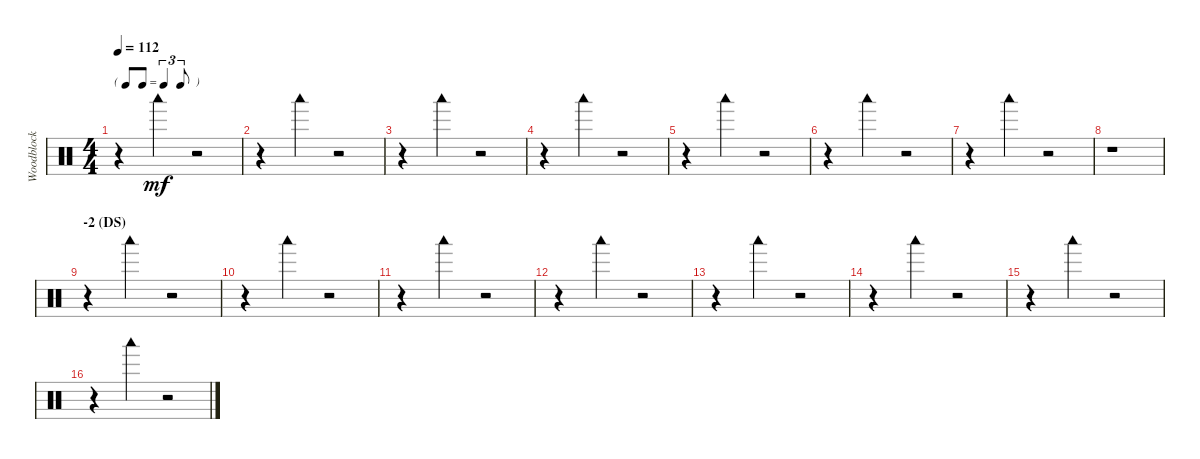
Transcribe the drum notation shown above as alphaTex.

\track ("Woodblock" "Woodblock") {instrument percussion}
\staff {score}
\articulation defaults
\ts (4 4)
\tf triplet8th
\section ("" "")
\tempo 112
\clef neutral
\ks c
r.4{dy mf} "Woodblock low (hit)".4 r.2 |
r.4 "Woodblock low (hit)".4 r.2 |
r.4 "Woodblock low (hit)".4 r.2 |
r.4 "Woodblock low (hit)".4 r.2 |
r.4 "Woodblock low (hit)".4 r.2 |
r.4 "Woodblock low (hit)".4 r.2 |
r.4 "Woodblock low (hit)".4 r.2 |
r.1 |
\section ("" "-2 (DS)")
r.4 "Woodblock low (hit)".4 r.2 |
r.4 "Woodblock low (hit)".4 r.2 |
r.4 "Woodblock low (hit)".4 r.2 |
r.4 "Woodblock low (hit)".4 r.2 |
r.4 "Woodblock low (hit)".4 r.2 |
r.4 "Woodblock low (hit)".4 r.2 |
r.4 "Woodblock low (hit)".4 r.2 |
r.4 "Woodblock low (hit)".4 r.2
